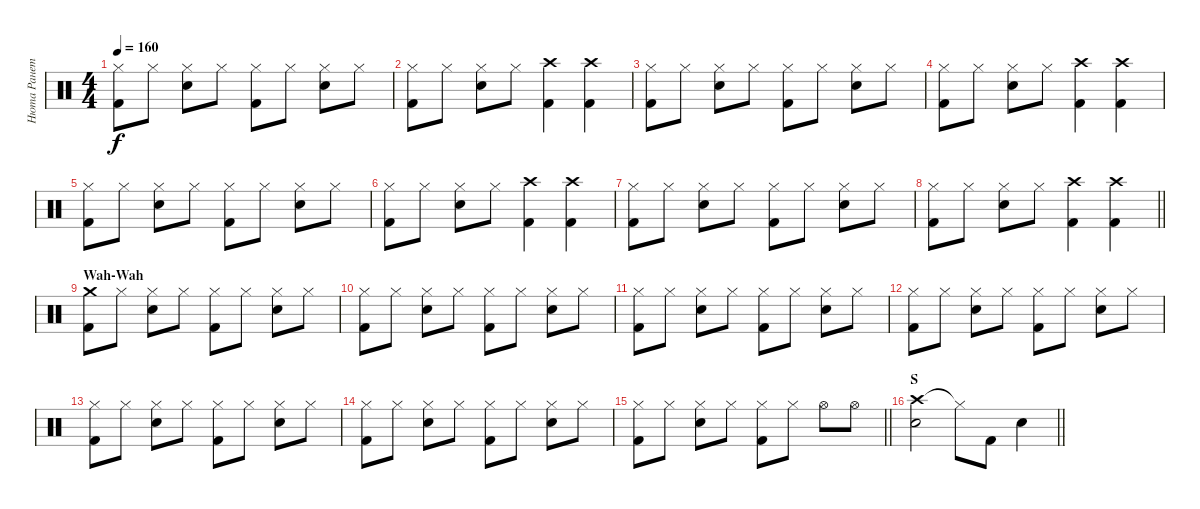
\track ("Нюта Ранетка" "Нюта Ранет") {instrument percussion}
\staff {score}
\articulation defaults
\ts (4 4)
\tempo 160
\clef neutral
\ks c
("Hi-Hat (closed)" "Kick (hit) 2").8{dy f} "Hi-Hat (closed)".8 ("Hi-Hat (closed)" "Snare (hit) 2").8 "Hi-Hat (closed)".8 ("Hi-Hat (closed)" "Kick (hit) 2").8 "Hi-Hat (closed)".8 ("Hi-Hat (closed)" "Snare (hit) 2").8 "Hi-Hat (closed)".8 |
("Hi-Hat (closed)" "Kick (hit) 2").8 "Hi-Hat (closed)".8 ("Hi-Hat (closed)" "Snare (hit) 2").8 "Hi-Hat (closed)".8 ("Crash high (hit)" "Kick (hit) 2").4 ("Crash high (hit)" "Kick (hit) 2").4 |
("Hi-Hat (closed)" "Kick (hit) 2").8 "Hi-Hat (closed)".8 ("Hi-Hat (closed)" "Snare (hit) 2").8 "Hi-Hat (closed)".8 ("Hi-Hat (closed)" "Kick (hit) 2").8 "Hi-Hat (closed)".8 ("Hi-Hat (closed)" "Snare (hit) 2").8 "Hi-Hat (closed)".8 |
("Hi-Hat (closed)" "Kick (hit) 2").8 "Hi-Hat (closed)".8 ("Hi-Hat (closed)" "Snare (hit) 2").8 "Hi-Hat (closed)".8 ("Crash high (hit)" "Kick (hit) 2").4 ("Crash high (hit)" "Kick (hit) 2").4 |
("Hi-Hat (closed)" "Kick (hit) 2").8 "Hi-Hat (closed)".8 ("Hi-Hat (closed)" "Snare (hit) 2").8 "Hi-Hat (closed)".8 ("Hi-Hat (closed)" "Kick (hit) 2").8 "Hi-Hat (closed)".8 ("Hi-Hat (closed)" "Snare (hit) 2").8 "Hi-Hat (closed)".8 |
("Hi-Hat (closed)" "Kick (hit) 2").8 "Hi-Hat (closed)".8 ("Hi-Hat (closed)" "Snare (hit) 2").8 "Hi-Hat (closed)".8 ("Crash high (hit)" "Kick (hit) 2").4 ("Crash high (hit)" "Kick (hit) 2").4 |
("Hi-Hat (closed)" "Kick (hit) 2").8 "Hi-Hat (closed)".8 ("Hi-Hat (closed)" "Snare (hit) 2").8 "Hi-Hat (closed)".8 ("Hi-Hat (closed)" "Kick (hit) 2").8 "Hi-Hat (closed)".8 ("Hi-Hat (closed)" "Snare (hit) 2").8 "Hi-Hat (closed)".8 |
\barLineRight lightlight
("Hi-Hat (closed)" "Kick (hit) 2").8 "Hi-Hat (closed)".8 ("Hi-Hat (closed)" "Snare (hit) 2").8 "Hi-Hat (closed)".8 ("Crash high (hit)" "Kick (hit) 2").4 ("Crash high (hit)" "Kick (hit) 2").4 |
\section ("" "Wah-Wah")
("Crash medium (hit)" "Kick (hit) 2").8 "Hi-Hat (closed)".8 ("Hi-Hat (closed)" "Snare (hit) 2").8 "Hi-Hat (closed)".8 ("Hi-Hat (closed)" "Kick (hit) 2").8 "Hi-Hat (closed)".8 ("Hi-Hat (closed)" "Snare (hit) 2").8 "Hi-Hat (closed)".8 |
("Hi-Hat (closed)" "Kick (hit) 2").8 "Hi-Hat (closed)".8 ("Hi-Hat (closed)" "Snare (hit) 2").8 "Hi-Hat (closed)".8 ("Hi-Hat (closed)" "Kick (hit) 2").8 "Hi-Hat (closed)".8 ("Hi-Hat (closed)" "Snare (hit) 2").8 "Hi-Hat (closed)".8 |
("Hi-Hat (closed)" "Kick (hit) 2").8 "Hi-Hat (closed)".8 ("Hi-Hat (closed)" "Snare (hit) 2").8 "Hi-Hat (closed)".8 ("Hi-Hat (closed)" "Kick (hit) 2").8 "Hi-Hat (closed)".8 ("Hi-Hat (closed)" "Snare (hit) 2").8 "Hi-Hat (closed)".8 |
("Hi-Hat (closed)" "Kick (hit) 2").8 "Hi-Hat (closed)".8 ("Hi-Hat (closed)" "Snare (hit) 2").8 "Hi-Hat (closed)".8 ("Hi-Hat (closed)" "Kick (hit) 2").8 "Hi-Hat (closed)".8 ("Hi-Hat (closed)" "Snare (hit) 2").8 "Hi-Hat (closed)".8 |
("Hi-Hat (closed)" "Kick (hit) 2").8 "Hi-Hat (closed)".8 ("Hi-Hat (closed)" "Snare (hit) 2").8 "Hi-Hat (closed)".8 ("Hi-Hat (closed)" "Kick (hit) 2").8 "Hi-Hat (closed)".8 ("Hi-Hat (closed)" "Snare (hit) 2").8 "Hi-Hat (closed)".8 |
("Hi-Hat (closed)" "Kick (hit) 2").8 "Hi-Hat (closed)".8 ("Hi-Hat (closed)" "Snare (hit) 2").8 "Hi-Hat (closed)".8 ("Hi-Hat (closed)" "Kick (hit) 2").8 "Hi-Hat (closed)".8 ("Hi-Hat (closed)" "Snare (hit) 2").8 "Hi-Hat (closed)".8 |
\barLineRight lightlight
("Hi-Hat (closed)" "Kick (hit) 2").8 "Hi-Hat (closed)".8 ("Hi-Hat (closed)" "Snare (hit) 2").8 "Hi-Hat (closed)".8 ("Hi-Hat (closed)" "Kick (hit) 2").8 "Hi-Hat (closed)".8 "Hi-Hat (open)".8 "Hi-Hat (open)".8 |
\section ("" "S")
\barLineRight lightlight
("Crash high (hit)" "Snare (hit) 2").2 "Hi-Hat (closed)"{t}.8 "Kick (hit) 2".8 "Snare (hit) 2".4
